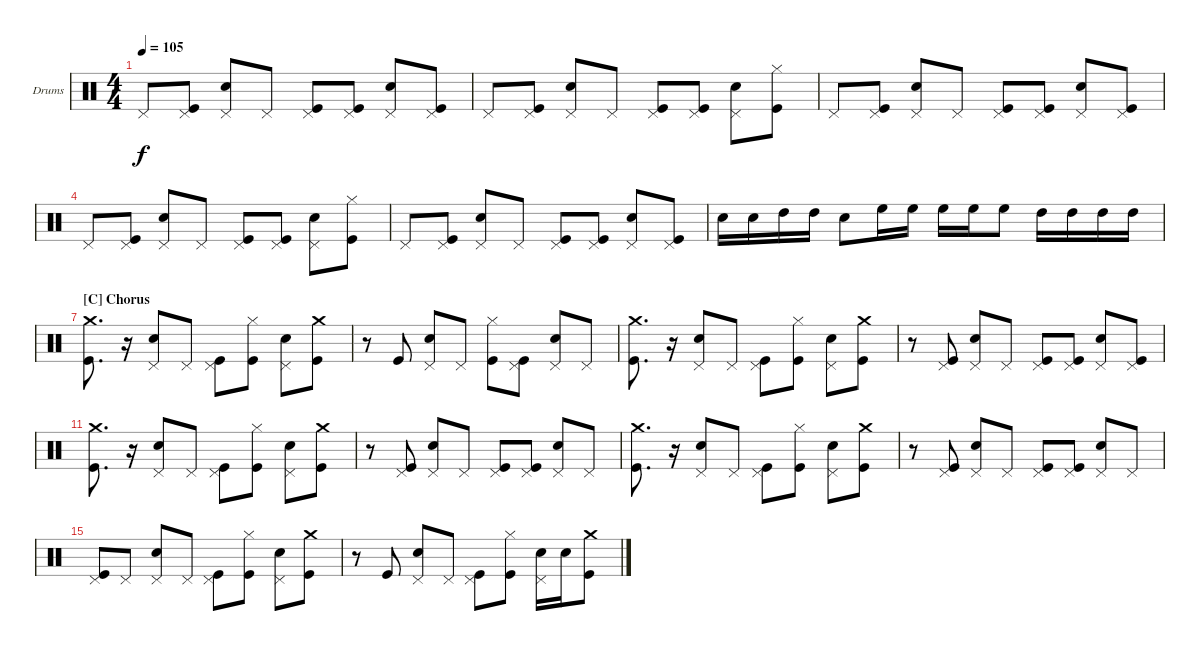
\bracketExtendMode nobrackets
\firstSystemTrackNameOrientation horizontal
\otherSystemsTrackNameOrientation horizontal
\defaultBarNumberDisplay FirstOfSystem
\track ("Drumkit" "Drums") {instrument percussion}
\staff {score}
\articulation defaults
\ts (4 4)
\tempo 105
\clef neutral
\ks c "Pedal Hi-Hat (hit)".8{dy f}
("Kick (hit)" "Pedal Hi-Hat (hit)").8 ("Snare (hit) 2" "Pedal Hi-Hat (hit)").8 "Pedal Hi-Hat (hit)".8 ("Kick (hit)" "Pedal Hi-Hat (hit)").8 ("Kick (hit)" "Pedal Hi-Hat (hit)").8 ("Snare (hit) 2" "Pedal Hi-Hat (hit)").8 ("Kick (hit)" "Pedal Hi-Hat (hit)").8 |
"Pedal Hi-Hat (hit)".8 ("Kick (hit)" "Pedal Hi-Hat (hit)").8 ("Snare (hit) 2" "Pedal Hi-Hat (hit)").8 "Pedal Hi-Hat (hit)".8 ("Kick (hit)" "Pedal Hi-Hat (hit)").8 ("Kick (hit)" "Pedal Hi-Hat (hit)").8 ("Snare (hit) 2" "Pedal Hi-Hat (hit)").8 ("Kick (hit)" "Hi-Hat (closed)").8 |
"Pedal Hi-Hat (hit)".8 ("Kick (hit)" "Pedal Hi-Hat (hit)").8 ("Snare (hit) 2" "Pedal Hi-Hat (hit)").8 "Pedal Hi-Hat (hit)".8 ("Kick (hit)" "Pedal Hi-Hat (hit)").8 ("Kick (hit)" "Pedal Hi-Hat (hit)").8 ("Snare (hit) 2" "Pedal Hi-Hat (hit)").8 ("Kick (hit)" "Pedal Hi-Hat (hit)").8 |
"Pedal Hi-Hat (hit)".8 ("Kick (hit)" "Pedal Hi-Hat (hit)").8 ("Snare (hit) 2" "Pedal Hi-Hat (hit)").8 "Pedal Hi-Hat (hit)".8 ("Kick (hit)" "Pedal Hi-Hat (hit)").8 ("Kick (hit)" "Pedal Hi-Hat (hit)").8 ("Snare (hit) 2" "Pedal Hi-Hat (hit)").8 ("Kick (hit)" "Hi-Hat (closed)").8 |
"Pedal Hi-Hat (hit)".8 ("Kick (hit)" "Pedal Hi-Hat (hit)").8 ("Snare (hit) 2" "Pedal Hi-Hat (hit)").8 "Pedal Hi-Hat (hit)".8 ("Kick (hit)" "Pedal Hi-Hat (hit)").8 ("Kick (hit)" "Pedal Hi-Hat (hit)").8 ("Snare (hit) 2" "Pedal Hi-Hat (hit)").8 ("Kick (hit)" "Pedal Hi-Hat (hit)").8 |
"Snare (hit) 2".16 "Snare (hit) 2".16 "High Tom (hit)".16 "High Tom (hit)".16 "Snare (hit) 2".8 "High Floor Tom (hit)".16 "High Floor Tom (hit)".16 "High Floor Tom (hit)".16 "High Floor Tom (hit)".16 "High Floor Tom (hit)".8 "High Tom (hit)".16 "High Tom (hit)".16 "High Tom (hit)".16 "High Tom (hit)".16 |
\section ("C" "Chorus")
("Kick (hit)" "Crash medium (hit)").8{d} r.16 ("Snare (hit) 2" "Pedal Hi-Hat (hit)").8 "Pedal Hi-Hat (hit)".8 ("Kick (hit)" "Pedal Hi-Hat (hit)").8 ("Kick (hit)" "Hi-Hat (closed)").8 ("Snare (hit) 2" "Pedal Hi-Hat (hit)").8 ("Kick (hit)" "Crash medium (hit)").8 |
r.8 "Kick (hit)".8 ("Snare (hit) 2" "Pedal Hi-Hat (hit)").8 "Pedal Hi-Hat (hit)".8 ("Kick (hit)" "Hi-Hat (closed)").8 ("Kick (hit)" "Pedal Hi-Hat (hit)").8 ("Snare (hit) 2" "Pedal Hi-Hat (hit)").8 "Pedal Hi-Hat (hit)".8 |
("Kick (hit)" "Crash medium (hit)").8{d} r.16 ("Snare (hit) 2" "Pedal Hi-Hat (hit)").8 "Pedal Hi-Hat (hit)".8 ("Kick (hit)" "Pedal Hi-Hat (hit)").8 ("Kick (hit)" "Hi-Hat (closed)").8 ("Snare (hit) 2" "Pedal Hi-Hat (hit)").8 ("Kick (hit)" "Crash medium (hit)").8 |
r.8 ("Kick (hit)" "Pedal Hi-Hat (hit)").8 ("Snare (hit) 2" "Pedal Hi-Hat (hit)").8 "Pedal Hi-Hat (hit)".8 ("Kick (hit)" "Pedal Hi-Hat (hit)").8 ("Kick (hit)" "Pedal Hi-Hat (hit)").8 ("Snare (hit) 2" "Pedal Hi-Hat (hit)").8 ("Kick (hit)" "Pedal Hi-Hat (hit)").8 |
("Kick (hit)" "Crash medium (hit)").8{d} r.16 ("Snare (hit) 2" "Pedal Hi-Hat (hit)").8 "Pedal Hi-Hat (hit)".8 ("Kick (hit)" "Pedal Hi-Hat (hit)").8 ("Kick (hit)" "Hi-Hat (closed)").8 ("Snare (hit) 2" "Pedal Hi-Hat (hit)").8 ("Kick (hit)" "Crash medium (hit)").8 |
r.8 ("Kick (hit)" "Pedal Hi-Hat (hit)").8 ("Snare (hit) 2" "Pedal Hi-Hat (hit)").8 "Pedal Hi-Hat (hit)".8 ("Kick (hit)" "Pedal Hi-Hat (hit)").8 ("Kick (hit)" "Pedal Hi-Hat (hit)").8 ("Snare (hit) 2" "Pedal Hi-Hat (hit)").8 "Pedal Hi-Hat (hit)".8 |
("Kick (hit)" "Crash medium (hit)").8{d} r.16 ("Snare (hit) 2" "Pedal Hi-Hat (hit)").8 "Pedal Hi-Hat (hit)".8 ("Kick (hit)" "Pedal Hi-Hat (hit)").8 ("Kick (hit)" "Hi-Hat (closed)").8 ("Snare (hit) 2" "Pedal Hi-Hat (hit)").8 ("Kick (hit)" "Crash medium (hit)").8 |
r.8 ("Kick (hit)" "Pedal Hi-Hat (hit)").8 ("Snare (hit) 2" "Pedal Hi-Hat (hit)").8 "Pedal Hi-Hat (hit)".8 ("Kick (hit)" "Pedal Hi-Hat (hit)").8 ("Kick (hit)" "Pedal Hi-Hat (hit)").8 ("Snare (hit) 2" "Pedal Hi-Hat (hit)").8 "Pedal Hi-Hat (hit)".8 |
("Kick (hit)" "Pedal Hi-Hat (hit)").8 "Pedal Hi-Hat (hit)".8 ("Snare (hit) 2" "Pedal Hi-Hat (hit)").8 "Pedal Hi-Hat (hit)".8 ("Kick (hit)" "Pedal Hi-Hat (hit)").8 ("Kick (hit)" "Hi-Hat (closed)").8 ("Snare (hit) 2" "Pedal Hi-Hat (hit)").8 ("Kick (hit)" "Crash medium (hit)").8 |
r.8 "Kick (hit)".8 ("Snare (hit) 2" "Pedal Hi-Hat (hit)").8 "Pedal Hi-Hat (hit)".8 ("Kick (hit)" "Pedal Hi-Hat (hit)").8 ("Kick (hit)" "Hi-Hat (closed)").8 ("Snare (hit) 2" "Pedal Hi-Hat (hit)").16 "Snare (hit) 2".16 ("Kick (hit)" "Crash medium (hit)").8
